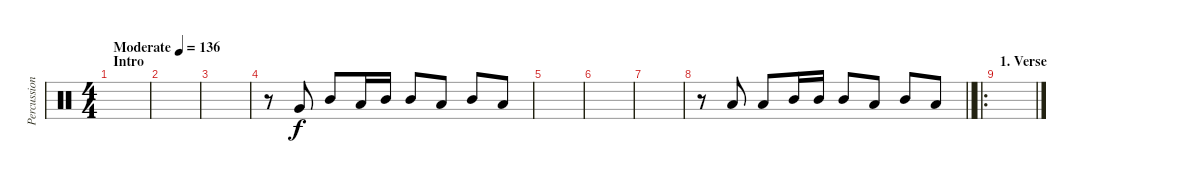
\track ("Percussion (Guitar)" "Percussion") {instrument percussion}
\staff {score}
\articulation defaults
\ts (4 4)
\section ("" "Intro")
\tempo (136 "Moderate")
\clef neutral
\ks c
|
|
|
r.8 "Very Low Tom (hit)".8 "Mid Tom (hit)".8 "Low Tom (hit)".16 "Mid Tom (hit)".16 "Mid Tom (hit)".8 "Low Tom (hit)".8 "Mid Tom (hit)".8 "Low Tom (hit)".8 |
|
|
|
\barLineRight lightlight
r.8 "Low Tom (hit)".8 "Low Tom (hit)".8 "Mid Tom (hit)".16 "Mid Tom (hit)".16 "Mid Tom (hit)".8 "Low Tom (hit)".8 "Mid Tom (hit)".8 "Low Tom (hit)".8 |
\ro
\section ("" "1. Verse")
